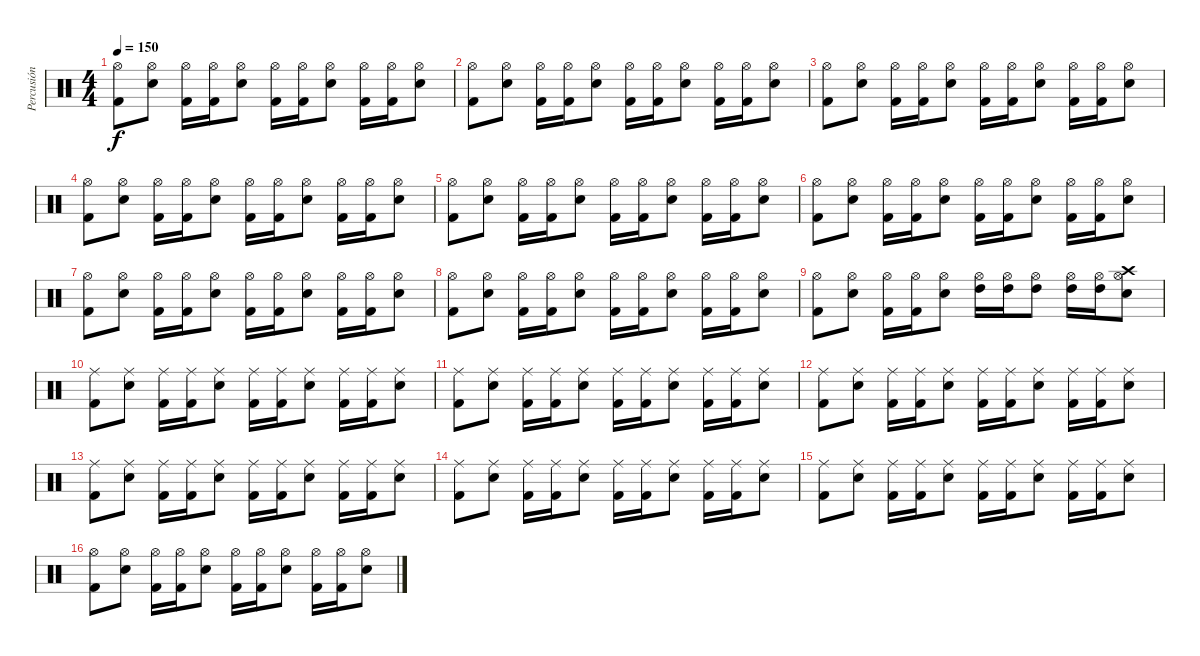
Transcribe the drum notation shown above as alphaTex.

\track ("Percusión" "Percusión") {instrument percussion}
\staff {score}
\articulation defaults
\ts (4 4)
\tempo 150
\clef neutral
\ks c
("Kick (hit) 2" "Hi-Hat (open)").8{dy f} ("Electric Snare (hit)" "Hi-Hat (open)").8 ("Kick (hit) 2" "Hi-Hat (open)").16 ("Kick (hit) 2" "Hi-Hat (open)").16 ("Electric Snare (hit)" "Hi-Hat (open)").8 ("Kick (hit) 2" "Hi-Hat (open)").16 ("Kick (hit) 2" "Hi-Hat (open)").16 ("Electric Snare (hit)" "Hi-Hat (open)").8 ("Kick (hit) 2" "Hi-Hat (open)").16 ("Kick (hit) 2" "Hi-Hat (open)").16 ("Electric Snare (hit)" "Hi-Hat (open)").8 |
("Kick (hit) 2" "Hi-Hat (open)").8 ("Electric Snare (hit)" "Hi-Hat (open)").8 ("Kick (hit) 2" "Hi-Hat (open)").16 ("Kick (hit) 2" "Hi-Hat (open)").16 ("Electric Snare (hit)" "Hi-Hat (open)").8 ("Kick (hit) 2" "Hi-Hat (open)").16 ("Kick (hit) 2" "Hi-Hat (open)").16 ("Electric Snare (hit)" "Hi-Hat (open)").8 ("Kick (hit) 2" "Hi-Hat (open)").16 ("Kick (hit) 2" "Hi-Hat (open)").16 ("Electric Snare (hit)" "Hi-Hat (open)").8 |
("Kick (hit) 2" "Hi-Hat (open)").8 ("Electric Snare (hit)" "Hi-Hat (open)").8 ("Kick (hit) 2" "Hi-Hat (open)").16 ("Kick (hit) 2" "Hi-Hat (open)").16 ("Electric Snare (hit)" "Hi-Hat (open)").8 ("Kick (hit) 2" "Hi-Hat (open)").16 ("Kick (hit) 2" "Hi-Hat (open)").16 ("Electric Snare (hit)" "Hi-Hat (open)").8 ("Kick (hit) 2" "Hi-Hat (open)").16 ("Kick (hit) 2" "Hi-Hat (open)").16 ("Electric Snare (hit)" "Hi-Hat (open)").8 |
("Kick (hit) 2" "Hi-Hat (open)").8 ("Electric Snare (hit)" "Hi-Hat (open)").8 ("Kick (hit) 2" "Hi-Hat (open)").16 ("Kick (hit) 2" "Hi-Hat (open)").16 ("Electric Snare (hit)" "Hi-Hat (open)").8 ("Kick (hit) 2" "Hi-Hat (open)").16 ("Kick (hit) 2" "Hi-Hat (open)").16 ("Electric Snare (hit)" "Hi-Hat (open)").8 ("Kick (hit) 2" "Hi-Hat (open)").16 ("Kick (hit) 2" "Hi-Hat (open)").16 ("Electric Snare (hit)" "Hi-Hat (open)").8 |
("Kick (hit) 2" "Hi-Hat (open)").8 ("Electric Snare (hit)" "Hi-Hat (open)").8 ("Kick (hit) 2" "Hi-Hat (open)").16 ("Kick (hit) 2" "Hi-Hat (open)").16 ("Electric Snare (hit)" "Hi-Hat (open)").8 ("Kick (hit) 2" "Hi-Hat (open)").16 ("Kick (hit) 2" "Hi-Hat (open)").16 ("Electric Snare (hit)" "Hi-Hat (open)").8 ("Kick (hit) 2" "Hi-Hat (open)").16 ("Kick (hit) 2" "Hi-Hat (open)").16 ("Electric Snare (hit)" "Hi-Hat (open)").8 |
("Kick (hit) 2" "Hi-Hat (open)").8 ("Electric Snare (hit)" "Hi-Hat (open)").8 ("Kick (hit) 2" "Hi-Hat (open)").16 ("Kick (hit) 2" "Hi-Hat (open)").16 ("Electric Snare (hit)" "Hi-Hat (open)").8 ("Kick (hit) 2" "Hi-Hat (open)").16 ("Kick (hit) 2" "Hi-Hat (open)").16 ("Electric Snare (hit)" "Hi-Hat (open)").8 ("Kick (hit) 2" "Hi-Hat (open)").16 ("Kick (hit) 2" "Hi-Hat (open)").16 ("Electric Snare (hit)" "Hi-Hat (open)").8 |
("Kick (hit) 2" "Hi-Hat (open)").8 ("Electric Snare (hit)" "Hi-Hat (open)").8 ("Kick (hit) 2" "Hi-Hat (open)").16 ("Kick (hit) 2" "Hi-Hat (open)").16 ("Electric Snare (hit)" "Hi-Hat (open)").8 ("Kick (hit) 2" "Hi-Hat (open)").16 ("Kick (hit) 2" "Hi-Hat (open)").16 ("Electric Snare (hit)" "Hi-Hat (open)").8 ("Kick (hit) 2" "Hi-Hat (open)").16 ("Kick (hit) 2" "Hi-Hat (open)").16 ("Electric Snare (hit)" "Hi-Hat (open)").8 |
("Kick (hit) 2" "Hi-Hat (open)").8 ("Electric Snare (hit)" "Hi-Hat (open)").8 ("Kick (hit) 2" "Hi-Hat (open)").16 ("Kick (hit) 2" "Hi-Hat (open)").16 ("Electric Snare (hit)" "Hi-Hat (open)").8 ("Kick (hit) 2" "Hi-Hat (open)").16 ("Kick (hit) 2" "Hi-Hat (open)").16 ("Electric Snare (hit)" "Hi-Hat (open)").8 ("Kick (hit) 2" "Hi-Hat (open)").16 ("Kick (hit) 2" "Hi-Hat (open)").16 ("Electric Snare (hit)" "Hi-Hat (open)").8 |
("Kick (hit) 2" "Hi-Hat (open)").8 ("Electric Snare (hit)" "Hi-Hat (open)").8 ("Kick (hit) 2" "Hi-Hat (open)").16 ("Kick (hit) 2" "Hi-Hat (open)").16 ("Electric Snare (hit)" "Hi-Hat (open)").8 ("High Tom (hit)" "Hi-Hat (open)").16 ("High Tom (hit)" "Hi-Hat (open)").16 ("High Tom (hit)" "Hi-Hat (open)").8 ("High Tom (hit)" "Hi-Hat (open)").16 ("High Tom (hit)" "Hi-Hat (open)").16 ("Crash high (hit)" "Electric Snare (hit)" "Hi-Hat (open)").8 |
("Kick (hit) 2" "Ride (middle)").8 ("Electric Snare (hit)" "Ride (middle)").8 ("Kick (hit) 2" "Ride (middle)").16 ("Kick (hit) 2" "Ride (middle)").16 ("Electric Snare (hit)" "Ride (middle)").8 ("Kick (hit) 2" "Ride (middle)").16 ("Kick (hit) 2" "Ride (middle)").16 ("Electric Snare (hit)" "Ride (middle)").8 ("Kick (hit) 2" "Ride (middle)").16 ("Kick (hit) 2" "Ride (middle)").16 ("Electric Snare (hit)" "Ride (middle)").8 |
("Kick (hit) 2" "Ride (middle)").8 ("Electric Snare (hit)" "Ride (middle)").8 ("Kick (hit) 2" "Ride (middle)").16 ("Kick (hit) 2" "Ride (middle)").16 ("Electric Snare (hit)" "Ride (middle)").8 ("Kick (hit) 2" "Ride (middle)").16 ("Kick (hit) 2" "Ride (middle)").16 ("Electric Snare (hit)" "Ride (middle)").8 ("Kick (hit) 2" "Ride (middle)").16 ("Kick (hit) 2" "Ride (middle)").16 ("Electric Snare (hit)" "Ride (middle)").8 |
("Kick (hit) 2" "Ride (middle)").8 ("Electric Snare (hit)" "Ride (middle)").8 ("Kick (hit) 2" "Ride (middle)").16 ("Kick (hit) 2" "Ride (middle)").16 ("Electric Snare (hit)" "Ride (middle)").8 ("Kick (hit) 2" "Ride (middle)").16 ("Kick (hit) 2" "Ride (middle)").16 ("Electric Snare (hit)" "Ride (middle)").8 ("Kick (hit) 2" "Ride (middle)").16 ("Kick (hit) 2" "Ride (middle)").16 ("Electric Snare (hit)" "Ride (middle)").8 |
("Kick (hit) 2" "Ride (middle)").8 ("Electric Snare (hit)" "Ride (middle)").8 ("Kick (hit) 2" "Ride (middle)").16 ("Kick (hit) 2" "Ride (middle)").16 ("Electric Snare (hit)" "Ride (middle)").8 ("Kick (hit) 2" "Ride (middle)").16 ("Kick (hit) 2" "Ride (middle)").16 ("Electric Snare (hit)" "Ride (middle)").8 ("Kick (hit) 2" "Ride (middle)").16 ("Kick (hit) 2" "Ride (middle)").16 ("Electric Snare (hit)" "Ride (middle)").8 |
("Kick (hit) 2" "Ride (middle)").8 ("Electric Snare (hit)" "Ride (middle)").8 ("Kick (hit) 2" "Ride (middle)").16 ("Kick (hit) 2" "Ride (middle)").16 ("Electric Snare (hit)" "Ride (middle)").8 ("Kick (hit) 2" "Ride (middle)").16 ("Kick (hit) 2" "Ride (middle)").16 ("Electric Snare (hit)" "Ride (middle)").8 ("Kick (hit) 2" "Ride (middle)").16 ("Kick (hit) 2" "Ride (middle)").16 ("Electric Snare (hit)" "Ride (middle)").8 |
("Kick (hit) 2" "Ride (middle)").8 ("Electric Snare (hit)" "Ride (middle)").8 ("Kick (hit) 2" "Ride (middle)").16 ("Kick (hit) 2" "Ride (middle)").16 ("Electric Snare (hit)" "Ride (middle)").8 ("Kick (hit) 2" "Ride (middle)").16 ("Kick (hit) 2" "Ride (middle)").16 ("Electric Snare (hit)" "Ride (middle)").8 ("Kick (hit) 2" "Ride (middle)").16 ("Kick (hit) 2" "Ride (middle)").16 ("Electric Snare (hit)" "Ride (middle)").8 |
("Kick (hit) 2" "Hi-Hat (open)").8 ("Electric Snare (hit)" "Hi-Hat (open)").8 ("Kick (hit) 2" "Hi-Hat (open)").16 ("Kick (hit) 2" "Hi-Hat (open)").16 ("Electric Snare (hit)" "Hi-Hat (open)").8 ("Kick (hit) 2" "Hi-Hat (open)").16 ("Kick (hit) 2" "Hi-Hat (open)").16 ("Electric Snare (hit)" "Hi-Hat (open)").8 ("Kick (hit) 2" "Hi-Hat (open)").16 ("Kick (hit) 2" "Hi-Hat (open)").16 ("Electric Snare (hit)" "Hi-Hat (open)").8
